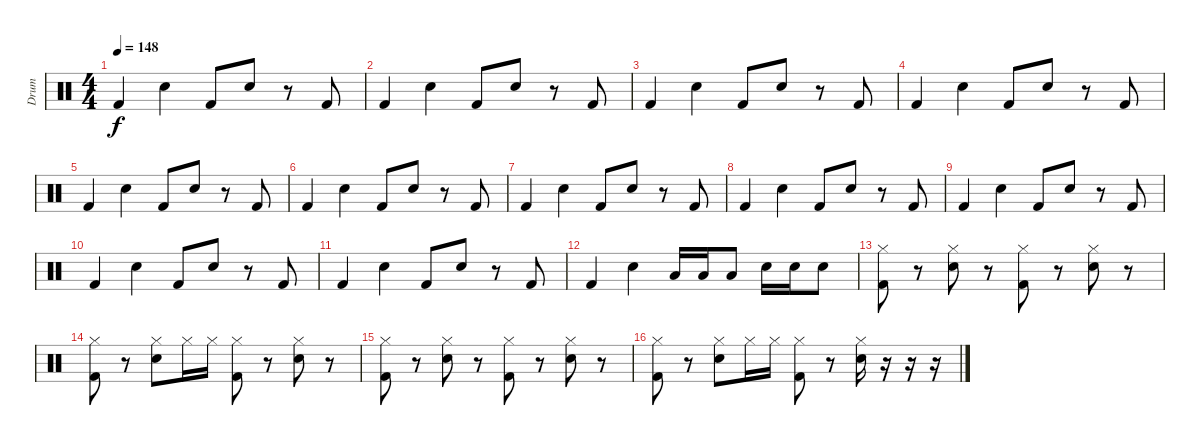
\track ("Drum" "Drum") {instrument percussion}
\staff {score}
\articulation defaults
\ts (4 4)
\tempo 148
\clef neutral
\ks c "Kick (hit) 2".4{dy f} "Electric Snare (hit)".4 "Kick (hit) 2".8 "Electric Snare (hit)".8
r.8 "Kick (hit) 2".8 |
"Kick (hit) 2".4 "Electric Snare (hit)".4 "Kick (hit) 2".8 "Electric Snare (hit)".8 r.8 "Kick (hit) 2".8 |
"Kick (hit) 2".4 "Electric Snare (hit)".4 "Kick (hit) 2".8 "Electric Snare (hit)".8 r.8 "Kick (hit) 2".8 |
"Kick (hit) 2".4 "Electric Snare (hit)".4 "Kick (hit) 2".8 "Electric Snare (hit)".8 r.8 "Kick (hit) 2".8 |
"Kick (hit) 2".4 "Electric Snare (hit)".4 "Kick (hit) 2".8 "Electric Snare (hit)".8 r.8 "Kick (hit) 2".8 |
"Kick (hit) 2".4 "Electric Snare (hit)".4 "Kick (hit) 2".8 "Electric Snare (hit)".8 r.8 "Kick (hit) 2".8 |
"Kick (hit) 2".4 "Electric Snare (hit)".4 "Kick (hit) 2".8 "Electric Snare (hit)".8 r.8 "Kick (hit) 2".8 |
"Kick (hit) 2".4 "Electric Snare (hit)".4 "Kick (hit) 2".8 "Electric Snare (hit)".8 r.8 "Kick (hit) 2".8 |
"Kick (hit) 2".4 "Electric Snare (hit)".4 "Kick (hit) 2".8 "Electric Snare (hit)".8 r.8 "Kick (hit) 2".8 |
"Kick (hit) 2".4 "Electric Snare (hit)".4 "Kick (hit) 2".8 "Electric Snare (hit)".8 r.8 "Kick (hit) 2".8 |
"Kick (hit) 2".4 "Electric Snare (hit)".4 "Kick (hit) 2".8 "Electric Snare (hit)".8 r.8 "Kick (hit) 2".8 |
"Kick (hit) 2".4 "Electric Snare (hit)".4 "Low Tom (hit)".16 "Low Tom (hit)".16 "Low Tom (hit)".8 "Electric Snare (hit)".16 "Electric Snare (hit)".16 "Electric Snare (hit)".8 |
("Hi-Hat (closed)" "Kick (hit) 2").8 r.8 ("Hi-Hat (closed)" "Electric Snare (hit)").8 r.8 ("Hi-Hat (closed)" "Kick (hit) 2").8 r.8 ("Hi-Hat (closed)" "Electric Snare (hit)").8 r.8 |
("Hi-Hat (closed)" "Kick (hit) 2").8 r.8 ("Hi-Hat (closed)" "Electric Snare (hit)").8 "Hi-Hat (closed)".16 "Hi-Hat (closed)".16 ("Hi-Hat (closed)" "Kick (hit) 2").8 r.8 ("Hi-Hat (closed)" "Electric Snare (hit)").8 r.8 |
("Hi-Hat (closed)" "Kick (hit) 2").8 r.8 ("Hi-Hat (closed)" "Electric Snare (hit)").8 r.8 ("Hi-Hat (closed)" "Kick (hit) 2").8 r.8 ("Hi-Hat (closed)" "Electric Snare (hit)").8 r.8 |
("Hi-Hat (closed)" "Kick (hit) 2").8 r.8 ("Hi-Hat (closed)" "Electric Snare (hit)").8 "Hi-Hat (closed)".16 "Hi-Hat (closed)".16 ("Hi-Hat (closed)" "Kick (hit) 2").8 r.8 ("Hi-Hat (closed)" "Electric Snare (hit)").16 r.16 r.16 r.16
